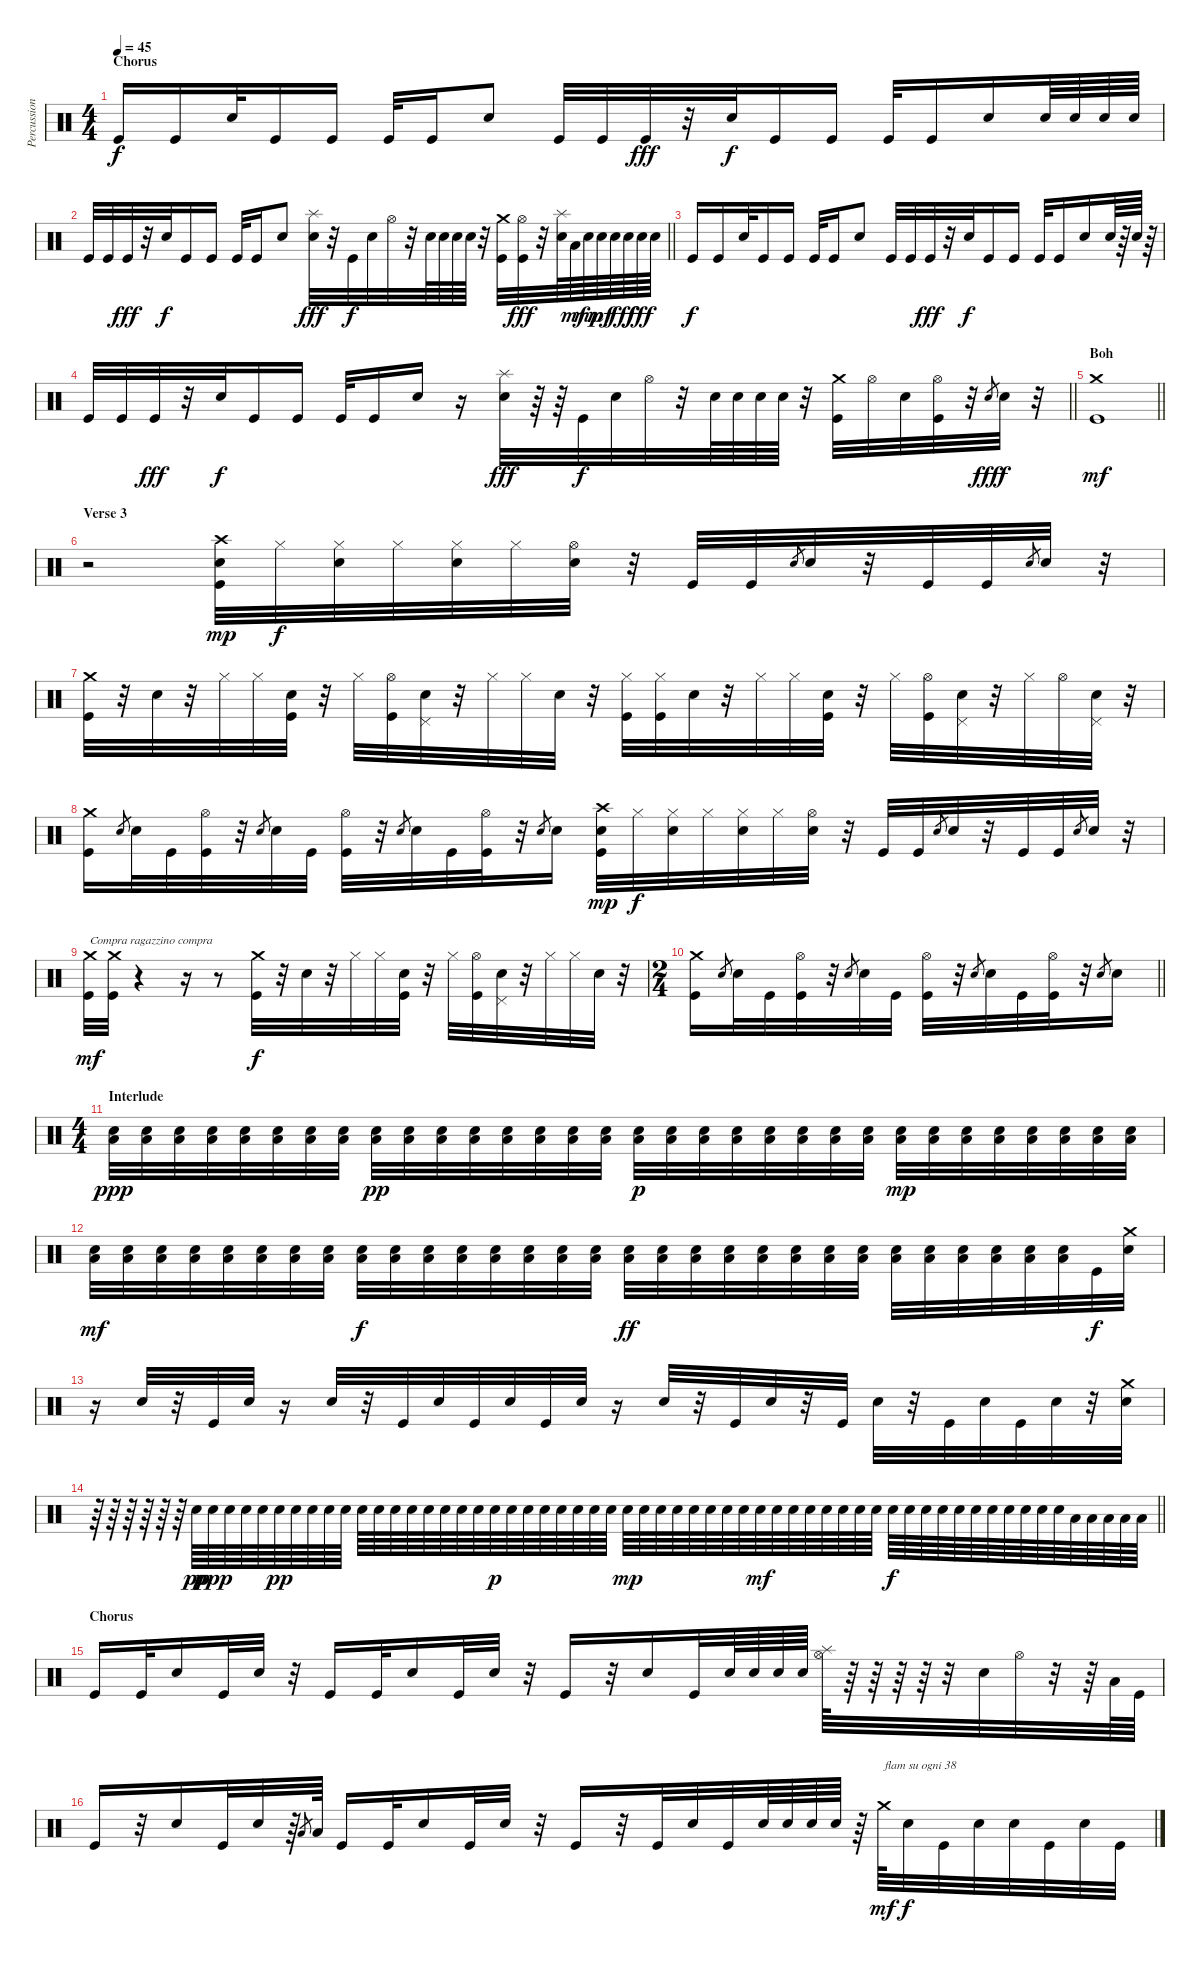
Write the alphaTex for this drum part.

\track ("Percussioni" "Percussion") {instrument percussion}
\staff {score}
\articulation defaults
\ts (4 4)
\section ("" "Chorus")
\tempo 45
\clef neutral
\ks c "Kick (hit)".16{dy f} "Kick (hit)".16 "Snare (hit) 2".32 "Kick (hit)".16 "Kick (hit)".16 "Kick (hit)".32 "Kick (hit)".16 "Snare (hit) 2".8 "Kick (hit)".32 "Kick (hit)".32 "Kick (hit)".32{dy fff}
r.32 "Snare (hit) 2".32{dy f} "Kick (hit)".16 "Kick (hit)".16 "Kick (hit)".32 "Kick (hit)".16 "Snare (hit) 2".16 "Snare (hit) 2".64 "Snare (hit) 2".64 "Snare (hit) 2".64 "Snare (hit) 2".64 |
\barLineRight lightlight "Kick (hit)".32 "Kick (hit)".32 "Kick (hit)".32{dy fff}
r.32 "Snare (hit) 2".32{dy f} "Kick (hit)".16 "Kick (hit)".16 "Kick (hit)".32 "Kick (hit)".16 "Snare (hit) 2".8 ("Snare (hit) 2" "Splash (hit)").32{dy fff} r.32 "Kick (hit)".32{dy f} "Snare (hit) 2".32 "Hi-Hat (open)".32 r.32 "Snare (hit) 2".64 "Snare (hit) 2".64 "Snare (hit) 2".64 "Snare (hit) 2".64 r.32 ("Crash medium (hit)" "Kick (hit)").32 ("Hi-Hat (open)" "Kick (hit)").32{dy fff} r.32 ("Snare (hit) 2" "Splash (hit)").64 "Low Floor Tom (hit)".64{dy mf} "Snare (hit) 2".64{dy mp} "Snare (hit) 2".64{dy mf} "Snare (hit) 2".64{dy f} "Snare (hit) 2".64{dy ff} "Snare (hit) 2".64{dy fff} "Snare (hit) 2".64 |
"Kick (hit)".16{dy f} "Kick (hit)".16 "Snare (hit) 2".32 "Kick (hit)".16 "Kick (hit)".16 "Kick (hit)".32 "Kick (hit)".16 "Snare (hit) 2".8 "Kick (hit)".32 "Kick (hit)".32 "Kick (hit)".32{dy fff} r.32 "Snare (hit) 2".32{dy f} "Kick (hit)".16 "Kick (hit)".16 "Kick (hit)".32 "Kick (hit)".16 "Snare (hit) 2".16 "Snare (hit) 2".64 r.64 "Snare (hit) 2".64 r.64 |
\barLineRight lightlight "Kick (hit)".32 "Kick (hit)".32 "Kick (hit)".32{dy fff}
r.32 "Snare (hit) 2".32{dy f} "Kick (hit)".16 "Kick (hit)".16 "Kick (hit)".32 "Kick (hit)".16 "Snare (hit) 2".16 r.16 ("Splash (hit)" "Snare (hit) 2").32{dy fff} r.64 r.64 "Kick (hit)".32{dy f} "Snare (hit) 2".32 "Hi-Hat (open)".32 r.32 "Snare (hit) 2".64 "Snare (hit) 2".64 "Snare (hit) 2".64 "Snare (hit) 2".64 r.32 ("Crash medium (hit)" "Kick (hit)").32 "Hi-Hat (open)".32 "Snare (hit) 2".32 ("Hi-Hat (open)" "Kick (hit)").32 r.32 "Snare (hit) 2".8{gr dy fff} "Snare (hit) 2".32{dy f} r.32 |
\section ("" "Boh")
\barLineRight lightlight
("Crash medium (hit)" "Kick (hit)").1{dy mf} |
\section ("" "Verse 3")
r.2 ("Crash high (hit)" "Kick (hit)" "Snare (hit) 2").32{dy mp} "Hi-Hat (closed)".32{dy f} ("Hi-Hat (closed)" "Snare (hit) 2").32 "Hi-Hat (closed)".32 ("Hi-Hat (closed)" "Snare (hit) 2").32 "Hi-Hat (closed)".32 ("Hi-Hat (open)" "Snare (hit) 2").32 r.32 "Kick (hit)".32 "Kick (hit)".32 "Snare (hit) 2".8{gr} "Snare (hit) 2".32 r.32 "Kick (hit)".32 "Kick (hit)".32 "Snare (hit) 2".8{gr} "Snare (hit) 2".32 r.32 |
("Crash medium (hit)" "Kick (hit)").32 r.32 "Snare (hit) 2".32 r.32 "Hi-Hat (closed)".32 "Hi-Hat (closed)".32 ("Kick (hit)" "Snare (hit) 2").32 r.32 "Hi-Hat (closed)".32 ("Hi-Hat (open)" "Kick (hit)").32 ("Snare (hit) 2" "Pedal Hi-Hat (hit)").32 r.32 "Hi-Hat (closed)".32 "Hi-Hat (closed)".32 "Snare (hit) 2".32 r.32 ("Hi-Hat (closed)" "Kick (hit)").32 ("Hi-Hat (closed)" "Kick (hit)").32 "Snare (hit) 2".32 r.32 "Hi-Hat (closed)".32 "Hi-Hat (closed)".32 ("Snare (hit) 2" "Kick (hit)").32 r.32 "Hi-Hat (closed)".32 ("Hi-Hat (open)" "Kick (hit)").32 ("Snare (hit) 2" "Pedal Hi-Hat (hit)").32 r.32 "Hi-Hat (closed)".32 "Hi-Hat (open)".32 ("Snare (hit) 2" "Pedal Hi-Hat (hit)").32 r.32 |
("Crash medium (hit)" "Kick (hit)").16 "Snare (hit) 2".8{gr} "Snare (hit) 2".32 "Kick (hit)".32 ("Hi-Hat (open)" "Kick (hit)").32 r.32 "Snare (hit) 2".8{gr} "Snare (hit) 2".32 "Kick (hit)".32 ("Hi-Hat (open)" "Kick (hit)").32 r.32 "Snare (hit) 2".8{gr} "Snare (hit) 2".32 "Kick (hit)".32 ("Hi-Hat (open)" "Kick (hit)").32 r.32 "Snare (hit) 2".8{gr} "Snare (hit) 2".16 ("Crash high (hit)" "Kick (hit)" "Snare (hit) 2").32{dy mp} "Hi-Hat (closed)".32{dy f} ("Hi-Hat (closed)" "Snare (hit) 2").32 "Hi-Hat (closed)".32 ("Hi-Hat (closed)" "Snare (hit) 2").32 "Hi-Hat (closed)".32 ("Hi-Hat (open)" "Snare (hit) 2").32 r.32 "Kick (hit)".32 "Kick (hit)".32 "Snare (hit) 2".8{gr} "Snare (hit) 2".32 r.32 "Kick (hit)".32 "Kick (hit)".32 "Snare (hit) 2".8{gr} "Snare (hit) 2".32 r.32 |
("Crash medium (hit)" "Kick (hit)").32{txt "Compra ragazzino compra" dy mf} ("Crash medium (hit)" "Kick (hit)").32 r.4 r.16 r.8 ("Crash medium (hit)" "Kick (hit)").32{dy f} r.32 "Snare (hit) 2".32 r.32 "Hi-Hat (closed)".32 "Hi-Hat (closed)".32 ("Kick (hit)" "Snare (hit) 2").32 r.32 "Hi-Hat (closed)".32 ("Hi-Hat (open)" "Kick (hit)").32 ("Snare (hit) 2" "Pedal Hi-Hat (hit)").32 r.32 "Hi-Hat (closed)".32 "Hi-Hat (closed)".32 "Snare (hit) 2".32 r.32 |
\ts (2 4)
\barLineRight lightlight
("Crash medium (hit)" "Kick (hit)").16 "Snare (hit) 2".8{gr} "Snare (hit) 2".32 "Kick (hit)".32 ("Hi-Hat (open)" "Kick (hit)").32 r.32 "Snare (hit) 2".8{gr} "Snare (hit) 2".32 "Kick (hit)".32 ("Hi-Hat (open)" "Kick (hit)").32 r.32 "Snare (hit) 2".8{gr} "Snare (hit) 2".32 "Kick (hit)".32 ("Hi-Hat (open)" "Kick (hit)").32 r.32 "Snare (hit) 2".8{gr} "Snare (hit) 2".16 |
\ts (4 4)
\section ("" "Interlude")
("Low Floor Tom (hit)" "Electric Snare (hit)").32{dy ppp} ("Low Floor Tom (hit)" "Electric Snare (hit)").32 ("Low Floor Tom (hit)" "Electric Snare (hit)").32 ("Low Floor Tom (hit)" "Electric Snare (hit)").32 ("Low Floor Tom (hit)" "Electric Snare (hit)").32 ("Low Floor Tom (hit)" "Electric Snare (hit)").32 ("Low Floor Tom (hit)" "Electric Snare (hit)").32 ("Low Floor Tom (hit)" "Electric Snare (hit)").32 ("Low Floor Tom (hit)" "Electric Snare (hit)").32{dy pp} ("Low Floor Tom (hit)" "Electric Snare (hit)").32 ("Low Floor Tom (hit)" "Electric Snare (hit)").32 ("Low Floor Tom (hit)" "Electric Snare (hit)").32 ("Low Floor Tom (hit)" "Electric Snare (hit)").32 ("Low Floor Tom (hit)" "Electric Snare (hit)").32 ("Low Floor Tom (hit)" "Electric Snare (hit)").32 ("Low Floor Tom (hit)" "Electric Snare (hit)").32 ("Low Floor Tom (hit)" "Electric Snare (hit)").32{dy p} ("Low Floor Tom (hit)" "Electric Snare (hit)").32 ("Low Floor Tom (hit)" "Electric Snare (hit)").32 ("Low Floor Tom (hit)" "Electric Snare (hit)").32 ("Low Floor Tom (hit)" "Electric Snare (hit)").32 ("Low Floor Tom (hit)" "Electric Snare (hit)").32 ("Low Floor Tom (hit)" "Electric Snare (hit)").32 ("Low Floor Tom (hit)" "Electric Snare (hit)").32 ("Low Floor Tom (hit)" "Electric Snare (hit)").32{dy mp} ("Low Floor Tom (hit)" "Electric Snare (hit)").32 ("Low Floor Tom (hit)" "Electric Snare (hit)").32 ("Low Floor Tom (hit)" "Electric Snare (hit)").32 ("Low Floor Tom (hit)" "Electric Snare (hit)").32 ("Low Floor Tom (hit)" "Electric Snare (hit)").32 ("Low Floor Tom (hit)" "Electric Snare (hit)").32 ("Low Floor Tom (hit)" "Electric Snare (hit)").32 |
("Low Floor Tom (hit)" "Electric Snare (hit)").32{dy mf} ("Low Floor Tom (hit)" "Electric Snare (hit)").32 ("Low Floor Tom (hit)" "Electric Snare (hit)").32 ("Low Floor Tom (hit)" "Electric Snare (hit)").32 ("Low Floor Tom (hit)" "Electric Snare (hit)").32 ("Low Floor Tom (hit)" "Electric Snare (hit)").32 ("Low Floor Tom (hit)" "Electric Snare (hit)").32 ("Low Floor Tom (hit)" "Electric Snare (hit)").32 ("Low Floor Tom (hit)" "Electric Snare (hit)").32{dy f} ("Low Floor Tom (hit)" "Electric Snare (hit)").32 ("Low Floor Tom (hit)" "Electric Snare (hit)").32 ("Low Floor Tom (hit)" "Electric Snare (hit)").32 ("Low Floor Tom (hit)" "Electric Snare (hit)").32 ("Low Floor Tom (hit)" "Electric Snare (hit)").32 ("Low Floor Tom (hit)" "Electric Snare (hit)").32 ("Low Floor Tom (hit)" "Electric Snare (hit)").32 ("Low Floor Tom (hit)" "Electric Snare (hit)").32{dy ff} ("Low Floor Tom (hit)" "Electric Snare (hit)").32 ("Low Floor Tom (hit)" "Electric Snare (hit)").32 ("Low Floor Tom (hit)" "Electric Snare (hit)").32 ("Low Floor Tom (hit)" "Electric Snare (hit)").32 ("Low Floor Tom (hit)" "Electric Snare (hit)").32 ("Low Floor Tom (hit)" "Electric Snare (hit)").32 ("Low Floor Tom (hit)" "Electric Snare (hit)").32 ("Low Floor Tom (hit)" "Electric Snare (hit)").32 ("Low Floor Tom (hit)" "Electric Snare (hit)").32 ("Low Floor Tom (hit)" "Electric Snare (hit)").32 ("Low Floor Tom (hit)" "Electric Snare (hit)").32 ("Low Floor Tom (hit)" "Electric Snare (hit)").32 ("Low Floor Tom (hit)" "Electric Snare (hit)").32 "Kick (hit)".32{dy f} ("Snare (hit) 2" "Crash medium (hit)").32 |
r.16 "Snare (hit) 2".32 r.32 "Kick (hit)".32 "Snare (hit) 2".32 r.16 "Snare (hit) 2".32 r.32 "Kick (hit)".32 "Snare (hit) 2".32 "Kick (hit)".32 "Snare (hit) 2".32 "Kick (hit)".32 "Snare (hit) 2".32 r.16 "Snare (hit) 2".32 r.32 "Kick (hit)".32 "Snare (hit) 2".32 r.32 "Kick (hit)".32 "Snare (hit) 2".32 r.32 "Kick (hit)".32 "Snare (hit) 2".32 "Kick (hit)".32 "Snare (hit) 2".32 r.32 ("Crash medium (hit)" "Snare (hit) 2").32 |
\barLineRight lightlight
r.64 r.64 r.64 r.64 r.64 r.64 "Snare (hit) 2".64{dy pp} "Snare (hit) 2".64{dy ppp} "Snare (hit) 2".64 "Snare (hit) 2".64 "Snare (hit) 2".64 "Snare (hit) 2".64{dy pp} "Snare (hit) 2".64 "Snare (hit) 2".64 "Snare (hit) 2".64 "Snare (hit) 2".64 "Snare (hit) 2".64 "Snare (hit) 2".64 "Snare (hit) 2".64 "Snare (hit) 2".64 "Snare (hit) 2".64 "Snare (hit) 2".64 "Snare (hit) 2".64 "Snare (hit) 2".64 "Snare (hit) 2".64{dy p} "Snare (hit) 2".64 "Snare (hit) 2".64 "Snare (hit) 2".64 "Snare (hit) 2".64 "Snare (hit) 2".64 "Snare (hit) 2".64 "Snare (hit) 2".64 "Snare (hit) 2".64{dy mp} "Snare (hit) 2".64 "Snare (hit) 2".64 "Snare (hit) 2".64 "Snare (hit) 2".64 "Snare (hit) 2".64 "Snare (hit) 2".64 "Snare (hit) 2".64 "Snare (hit) 2".64{dy mf} "Snare (hit) 2".64 "Snare (hit) 2".64 "Snare (hit) 2".64 "Snare (hit) 2".64 "Snare (hit) 2".64 "Snare (hit) 2".64 "Snare (hit) 2".64 "Snare (hit) 2".64{dy f} "Snare (hit) 2".64 "Snare (hit) 2".64 "Snare (hit) 2".64 "Snare (hit) 2".64 "Snare (hit) 2".64 "Snare (hit) 2".64 "Snare (hit) 2".64 "Snare (hit) 2".64 "Snare (hit) 2".64 "Snare (hit) 2".64 "Low Floor Tom (hit)".64 "Low Floor Tom (hit)".64 "Low Floor Tom (hit)".64 "Low Floor Tom (hit)".64 "Low Floor Tom (hit)".64 |
\section ("" "Chorus")
"Kick (hit)".16 "Kick (hit)".32 "Snare (hit) 2".16 "Kick (hit)".32 "Snare (hit) 2".32 r.32 "Kick (hit)".16 "Kick (hit)".32 "Snare (hit) 2".16 "Kick (hit)".32 "Snare (hit) 2".32 r.32 "Kick (hit)".16 r.32 "Snare (hit) 2".16 "Kick (hit)".32 "Snare (hit) 2".64 "Snare (hit) 2".64 "Snare (hit) 2".64 "Snare (hit) 2".64 ("Hi-Hat (open)" "Splash (hit)").64 r.64 r.64 r.64 r.64 r.32 "Snare (hit) 2".32 "Hi-Hat (open)".32 r.32 r.64 "Low Floor Tom (hit)".64 "Kick (hit)".64 |
"Kick (hit)".16 r.32 "Snare (hit) 2".16 "Kick (hit)".32 "Snare (hit) 2".32 r.64 "Low Floor Tom (hit)".8{gr} "Low Floor Tom (hit)".64 "Kick (hit)".16 "Kick (hit)".32 "Snare (hit) 2".16 "Kick (hit)".32 "Snare (hit) 2".32 r.32 "Kick (hit)".16 r.32 "Kick (hit)".32 "Snare (hit) 2".32 "Kick (hit)".32 "Snare (hit) 2".64 "Snare (hit) 2".64 "Snare (hit) 2".64 "Snare (hit) 2".64 r.64 "Crash medium (hit)".64{txt "flam su ogni 38" dy mf} "Snare (hit) 2".32{dy f} "Kick (hit)".32 "Snare (hit) 2".32 "Snare (hit) 2".32 "Kick (hit)".32 "Snare (hit) 2".32 "Kick (hit)".32
